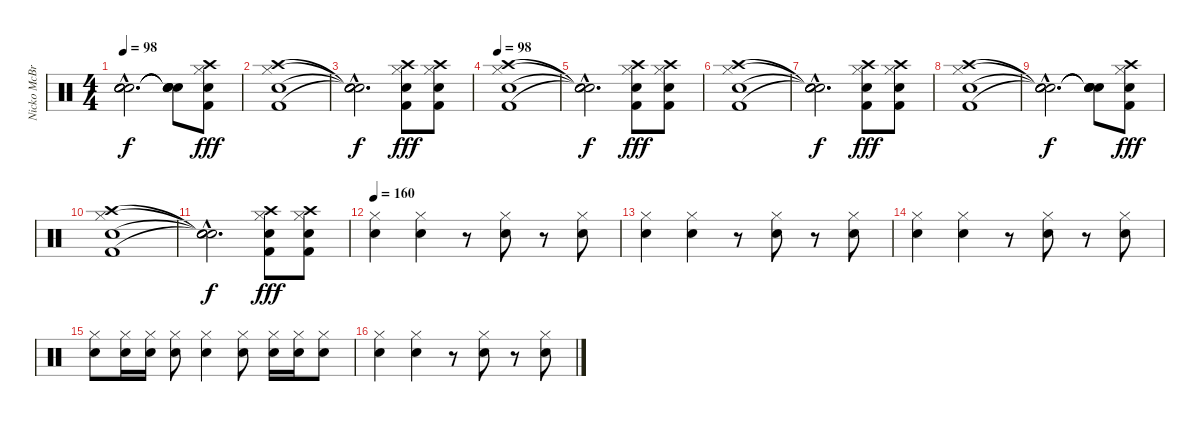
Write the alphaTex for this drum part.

\track ("Nicko McBrain" "Nicko McBr") {instrument percussion}
\staff {score}
\articulation defaults
\ts (4 4)
\tempo 98
\clef neutral
\ks c
("Snare (hit)"{hac t} "Snare (hit)"{hac t} "Snare (hit)"{hac t} "Snare (hit)"{hac t}).2{d dy f} ("Snare (hit)"{t} "Snare (hit)"{t} "Snare (hit)"{t} "Snare (hit)"{t}).8 ("Hi-Hat (closed)" "Kick (hit) 2" "Snare (hit) 2" "Crash high (hit)").8{dy fff} |
("Hi-Hat (closed)" "Kick (hit) 2" "Snare (hit) 2" "Crash high (hit)").1 |
("Snare (hit)"{hac t} "Snare (hit)"{hac t} "Snare (hit)"{hac t} "Snare (hit)"{hac t}).2{d dy f} ("Hi-Hat (closed)" "Kick (hit) 2" "Snare (hit) 2" "Crash high (hit)").8{dy fff} ("Hi-Hat (closed)" "Kick (hit) 2" "Snare (hit) 2" "Crash high (hit)").8 |
\tempo 98
("Hi-Hat (closed)" "Kick (hit) 2" "Snare (hit) 2" "Crash high (hit)").1 |
("Snare (hit)"{hac t} "Snare (hit)"{hac t} "Snare (hit)"{hac t} "Snare (hit)"{hac t}).2{d dy f} ("Hi-Hat (closed)" "Kick (hit) 2" "Snare (hit) 2" "Crash high (hit)").8{dy fff} ("Hi-Hat (closed)" "Kick (hit) 2" "Snare (hit) 2" "Crash high (hit)").8 |
("Hi-Hat (closed)" "Kick (hit) 2" "Snare (hit) 2" "Crash high (hit)").1 |
("Snare (hit)"{hac t} "Snare (hit)"{hac t} "Snare (hit)"{hac t} "Snare (hit)"{hac t}).2{d dy f} ("Hi-Hat (closed)" "Kick (hit) 2" "Snare (hit) 2" "Crash high (hit)").8{dy fff} ("Hi-Hat (closed)" "Kick (hit) 2" "Snare (hit) 2" "Crash high (hit)").8 |
("Hi-Hat (closed)" "Kick (hit) 2" "Snare (hit) 2" "Crash high (hit)").1 |
("Snare (hit)"{hac t} "Snare (hit)"{hac t} "Snare (hit)"{hac t} "Snare (hit)"{hac t}).2{d dy f} ("Snare (hit)"{t} "Snare (hit)"{t} "Snare (hit)"{t} "Snare (hit)"{t}).8 ("Hi-Hat (closed)" "Kick (hit) 2" "Snare (hit) 2" "Crash high (hit)").8{dy fff} |
("Hi-Hat (closed)" "Kick (hit) 2" "Snare (hit) 2" "Crash high (hit)").1 |
("Snare (hit)"{hac t} "Snare (hit)"{hac t} "Snare (hit)"{hac t} "Snare (hit)"{hac t}).2{d dy f} ("Hi-Hat (closed)" "Kick (hit) 2" "Snare (hit) 2" "Crash high (hit)").8{dy fff} ("Hi-Hat (closed)" "Kick (hit) 2" "Snare (hit) 2" "Crash high (hit)").8 |
\tempo 160
("Hi-Hat (closed)" "Snare (hit) 2").4 ("Hi-Hat (closed)" "Snare (hit) 2").4 r.8 ("Hi-Hat (closed)" "Snare (hit) 2").8 r.8 ("Hi-Hat (closed)" "Snare (hit) 2").8 |
("Hi-Hat (closed)" "Snare (hit) 2").4 ("Hi-Hat (closed)" "Snare (hit) 2").4 r.8 ("Hi-Hat (closed)" "Snare (hit) 2").8 r.8 ("Hi-Hat (closed)" "Snare (hit) 2").8 |
("Hi-Hat (closed)" "Snare (hit) 2").4 ("Hi-Hat (closed)" "Snare (hit) 2").4 r.8 ("Hi-Hat (closed)" "Snare (hit) 2").8 r.8 ("Hi-Hat (closed)" "Snare (hit) 2").8 |
("Hi-Hat (closed)" "Snare (hit) 2").8 ("Hi-Hat (closed)" "Snare (hit) 2").16 ("Hi-Hat (closed)" "Snare (hit) 2").16 ("Hi-Hat (closed)" "Snare (hit) 2").8 ("Hi-Hat (closed)" "Snare (hit) 2").4 ("Hi-Hat (closed)" "Snare (hit) 2").8 ("Hi-Hat (closed)" "Snare (hit) 2").16 ("Hi-Hat (closed)" "Snare (hit) 2").16 ("Hi-Hat (closed)" "Snare (hit) 2").8 |
("Hi-Hat (closed)" "Snare (hit) 2").4 ("Hi-Hat (closed)" "Snare (hit) 2").4 r.8 ("Hi-Hat (closed)" "Snare (hit) 2").8 r.8 ("Hi-Hat (closed)" "Snare (hit) 2").8
